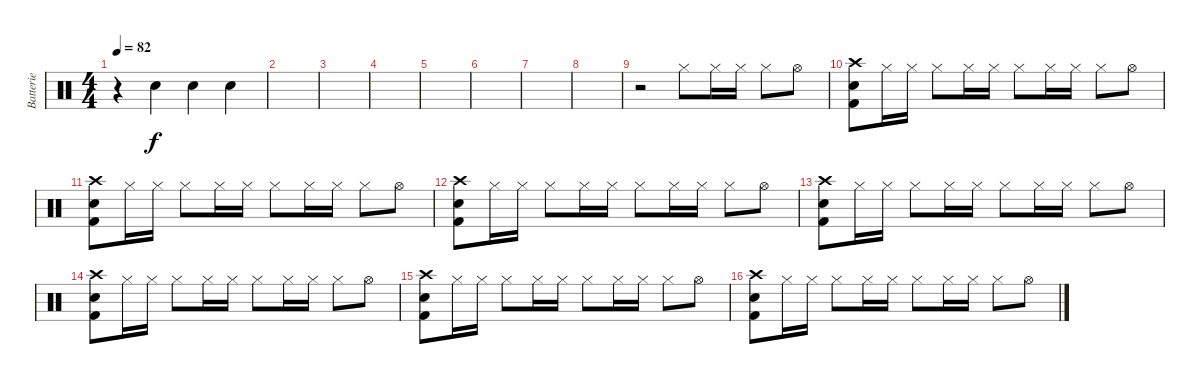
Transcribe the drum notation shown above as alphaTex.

\track ("Batterie" "Batterie") {instrument percussion}
\staff {score}
\articulation defaults
\ts (4 4)
\tempo 82
\clef neutral
\ks c
r.4{dy f} "Electric Snare (hit)".4 "Electric Snare (hit)".4 "Electric Snare (hit)".4 |
|
|
|
|
|
|
|
r.2 "Hi-Hat (closed)".8 "Hi-Hat (closed)".16 "Hi-Hat (closed)".16 "Hi-Hat (closed)".8 "Hi-Hat (open)".8 |
("Crash high (hit)" "Electric Snare (hit)" "Kick (hit) 2").8 "Hi-Hat (closed)".16 "Hi-Hat (closed)".16 "Hi-Hat (closed)".8 "Hi-Hat (closed)".16 "Hi-Hat (closed)".16 "Hi-Hat (closed)".8 "Hi-Hat (closed)".16 "Hi-Hat (closed)".16 "Hi-Hat (closed)".8 "Hi-Hat (open)".8 |
("Crash high (hit)" "Electric Snare (hit)" "Kick (hit) 2").8 "Hi-Hat (closed)".16 "Hi-Hat (closed)".16 "Hi-Hat (closed)".8 "Hi-Hat (closed)".16 "Hi-Hat (closed)".16 "Hi-Hat (closed)".8 "Hi-Hat (closed)".16 "Hi-Hat (closed)".16 "Hi-Hat (closed)".8 "Hi-Hat (open)".8 |
("Crash high (hit)" "Electric Snare (hit)" "Kick (hit) 2").8 "Hi-Hat (closed)".16 "Hi-Hat (closed)".16 "Hi-Hat (closed)".8 "Hi-Hat (closed)".16 "Hi-Hat (closed)".16 "Hi-Hat (closed)".8 "Hi-Hat (closed)".16 "Hi-Hat (closed)".16 "Hi-Hat (closed)".8 "Hi-Hat (open)".8 |
("Crash high (hit)" "Electric Snare (hit)" "Kick (hit) 2").8 "Hi-Hat (closed)".16 "Hi-Hat (closed)".16 "Hi-Hat (closed)".8 "Hi-Hat (closed)".16 "Hi-Hat (closed)".16 "Hi-Hat (closed)".8 "Hi-Hat (closed)".16 "Hi-Hat (closed)".16 "Hi-Hat (closed)".8 "Hi-Hat (open)".8 |
("Crash high (hit)" "Electric Snare (hit)" "Kick (hit) 2").8 "Hi-Hat (closed)".16 "Hi-Hat (closed)".16 "Hi-Hat (closed)".8 "Hi-Hat (closed)".16 "Hi-Hat (closed)".16 "Hi-Hat (closed)".8 "Hi-Hat (closed)".16 "Hi-Hat (closed)".16 "Hi-Hat (closed)".8 "Hi-Hat (open)".8 |
("Crash high (hit)" "Electric Snare (hit)" "Kick (hit) 2").8 "Hi-Hat (closed)".16 "Hi-Hat (closed)".16 "Hi-Hat (closed)".8 "Hi-Hat (closed)".16 "Hi-Hat (closed)".16 "Hi-Hat (closed)".8 "Hi-Hat (closed)".16 "Hi-Hat (closed)".16 "Hi-Hat (closed)".8 "Hi-Hat (open)".8 |
("Crash high (hit)" "Electric Snare (hit)" "Kick (hit) 2").8 "Hi-Hat (closed)".16 "Hi-Hat (closed)".16 "Hi-Hat (closed)".8 "Hi-Hat (closed)".16 "Hi-Hat (closed)".16 "Hi-Hat (closed)".8 "Hi-Hat (closed)".16 "Hi-Hat (closed)".16 "Hi-Hat (closed)".8 "Hi-Hat (open)".8
